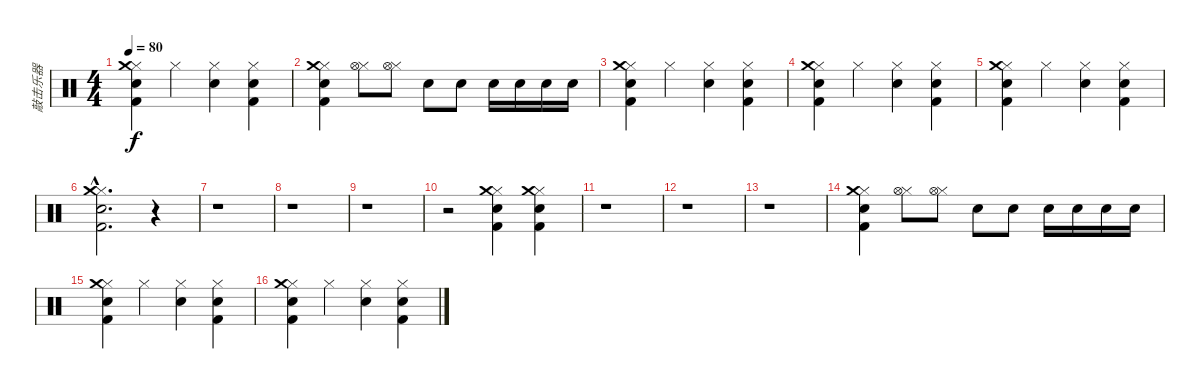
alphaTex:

\track ("敲击乐器" "敲击乐器") {instrument percussion}
\staff {score}
\articulation defaults
\ts (4 4)
\tempo 80
\clef neutral
\ks c
("Hi-Hat (closed)" "Snare (hit) 2" "Kick (hit) 2" "Crash medium (hit)").4{dy f} "Hi-Hat (closed)".4 ("Hi-Hat (closed)" "Hand Clap (hit)").4 ("Hi-Hat (closed)" "Snare (hit) 2" "Kick (hit) 2").4 |
("Hi-Hat (closed)" "Snare (hit) 2" "Kick (hit) 2" "Crash medium (hit)").4 ("Hi-Hat (closed)" "Hi-Hat (open)").8 ("Hi-Hat (closed)" "Hi-Hat (open)").8 "Electric Snare (hit)".8 "Electric Snare (hit)".8 "Snare (hit) 2".16 "Snare (hit) 2".16 "Snare (hit) 2".16 "Snare (hit) 2".16 |
("Hi-Hat (closed)" "Snare (hit) 2" "Kick (hit) 2" "Crash medium (hit)").4 "Hi-Hat (closed)".4 ("Hi-Hat (closed)" "Hand Clap (hit)").4 ("Hi-Hat (closed)" "Snare (hit) 2" "Kick (hit) 2").4 |
("Hi-Hat (closed)" "Snare (hit) 2" "Kick (hit) 2" "Crash medium (hit)").4 "Hi-Hat (closed)".4 ("Hi-Hat (closed)" "Hand Clap (hit)").4 ("Hi-Hat (closed)" "Snare (hit) 2" "Kick (hit) 2").4 |
("Hi-Hat (closed)" "Snare (hit) 2" "Kick (hit) 2" "Crash medium (hit)").4 "Hi-Hat (closed)".4 ("Hi-Hat (closed)" "Hand Clap (hit)").4 ("Hi-Hat (closed)" "Snare (hit) 2" "Kick (hit) 2").4 |
("Hi-Hat (closed)"{hac} "Snare (hit) 2"{hac} "Kick (hit) 2"{hac} "Crash medium (hit)"{hac}).2{d} r.4 |
r.1 |
r.1 |
r.1 |
r.2 ("Hi-Hat (closed)" "Snare (hit) 2" "Kick (hit) 2" "Crash medium (hit)").4 ("Hi-Hat (closed)" "Snare (hit) 2" "Kick (hit) 2" "Crash medium (hit)").4 |
r.1 |
r.1 |
r.1 |
("Hi-Hat (closed)" "Snare (hit) 2" "Kick (hit) 2" "Crash medium (hit)").4 ("Hi-Hat (closed)" "Hi-Hat (open)").8 ("Hi-Hat (closed)" "Hi-Hat (open)").8 "Electric Snare (hit)".8 "Electric Snare (hit)".8 "Snare (hit) 2".16 "Snare (hit) 2".16 "Snare (hit) 2".16 "Snare (hit) 2".16 |
("Hi-Hat (closed)" "Snare (hit) 2" "Kick (hit) 2" "Crash medium (hit)").4 "Hi-Hat (closed)".4 ("Hi-Hat (closed)" "Hand Clap (hit)").4 ("Hi-Hat (closed)" "Snare (hit) 2" "Kick (hit) 2").4 |
("Hi-Hat (closed)" "Snare (hit) 2" "Kick (hit) 2" "Crash medium (hit)").4 "Hi-Hat (closed)".4 ("Hi-Hat (closed)" "Hand Clap (hit)").4 ("Hi-Hat (closed)" "Snare (hit) 2" "Kick (hit) 2").4
